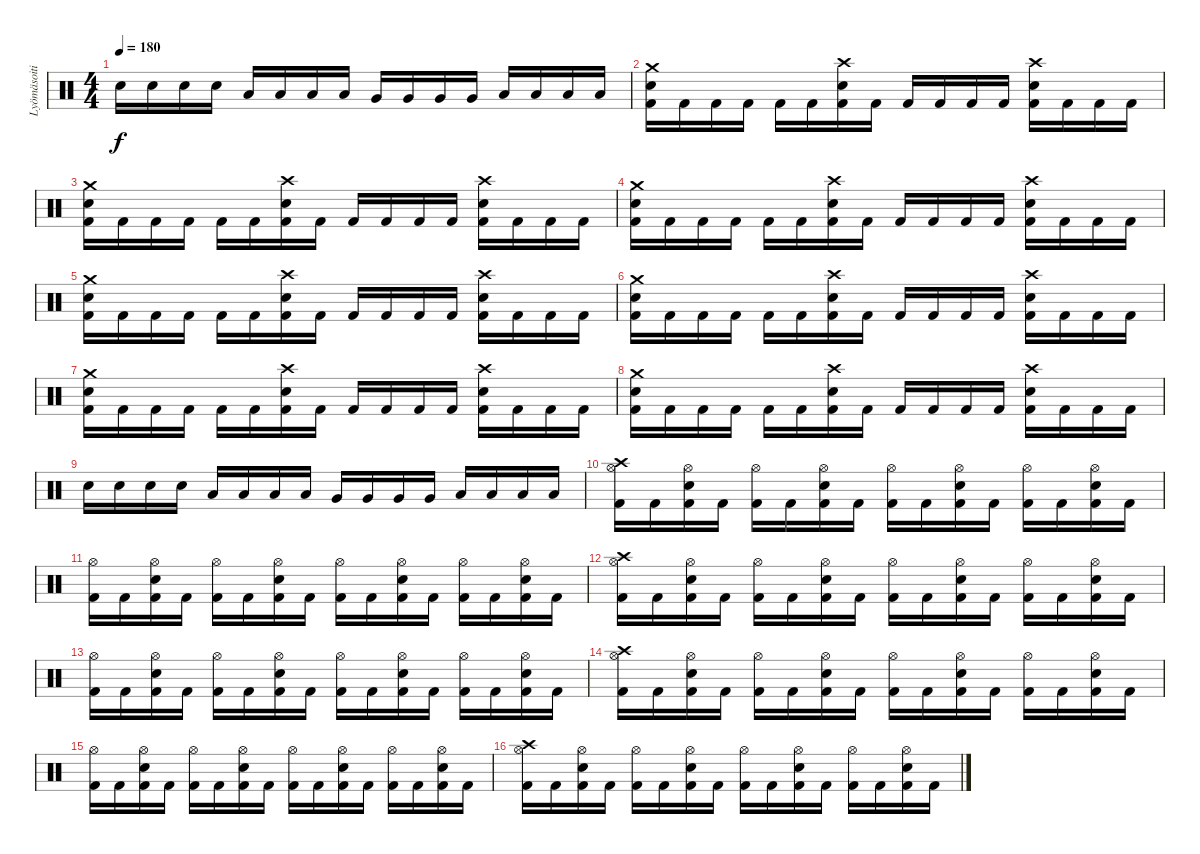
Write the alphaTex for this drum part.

\track ("Lyömäsoitin" "Lyömäsoiti") {instrument percussion}
\staff {score}
\articulation defaults
\ts (4 4)
\tempo 180
\clef neutral
\ks c "Snare (hit) 2".16{dy f} "Snare (hit) 2".16 "Snare (hit) 2".16 "Snare (hit) 2".16 "Low Tom (hit)".16 "Low Tom (hit)".16 "Low Tom (hit)".16 "Low Tom (hit)".16 "Very Low Tom (hit)".16 "Very Low Tom (hit)".16 "Very Low Tom (hit)".16 "Very Low Tom (hit)".16 "Low Floor Tom (hit)".16 "Low Floor Tom (hit)".16 "Low Floor Tom (hit)".16 "Low Floor Tom (hit)".16
|
("Kick (hit) 2" "Snare (hit) 2" "Crash medium (hit)").16 "Kick (hit) 2".16 "Kick (hit) 2".16 "Kick (hit) 2".16 "Kick (hit) 2".16 "Kick (hit) 2".16 ("Kick (hit) 2" "Snare (hit) 2" "Crash high (hit)").16 "Kick (hit) 2".16 "Kick (hit) 2".16 "Kick (hit) 2".16 "Kick (hit) 2".16 "Kick (hit) 2".16 ("Kick (hit) 2" "Snare (hit) 2" "Crash high (hit)").16 "Kick (hit) 2".16 "Kick (hit) 2".16 "Kick (hit) 2".16 |
("Kick (hit) 2" "Snare (hit) 2" "Crash medium (hit)").16 "Kick (hit) 2".16 "Kick (hit) 2".16 "Kick (hit) 2".16 "Kick (hit) 2".16 "Kick (hit) 2".16 ("Kick (hit) 2" "Snare (hit) 2" "Crash high (hit)").16 "Kick (hit) 2".16 "Kick (hit) 2".16 "Kick (hit) 2".16 "Kick (hit) 2".16 "Kick (hit) 2".16 ("Kick (hit) 2" "Snare (hit) 2" "Crash high (hit)").16 "Kick (hit) 2".16 "Kick (hit) 2".16 "Kick (hit) 2".16 |
("Kick (hit) 2" "Snare (hit) 2" "Crash medium (hit)").16 "Kick (hit) 2".16 "Kick (hit) 2".16 "Kick (hit) 2".16 "Kick (hit) 2".16 "Kick (hit) 2".16 ("Kick (hit) 2" "Snare (hit) 2" "Crash high (hit)").16 "Kick (hit) 2".16 "Kick (hit) 2".16 "Kick (hit) 2".16 "Kick (hit) 2".16 "Kick (hit) 2".16 ("Kick (hit) 2" "Snare (hit) 2" "Crash high (hit)").16 "Kick (hit) 2".16 "Kick (hit) 2".16 "Kick (hit) 2".16 |
("Kick (hit) 2" "Snare (hit) 2" "Crash medium (hit)").16 "Kick (hit) 2".16 "Kick (hit) 2".16 "Kick (hit) 2".16 "Kick (hit) 2".16 "Kick (hit) 2".16 ("Kick (hit) 2" "Snare (hit) 2" "Crash high (hit)").16 "Kick (hit) 2".16 "Kick (hit) 2".16 "Kick (hit) 2".16 "Kick (hit) 2".16 "Kick (hit) 2".16 ("Kick (hit) 2" "Snare (hit) 2" "Crash high (hit)").16 "Kick (hit) 2".16 "Kick (hit) 2".16 "Kick (hit) 2".16 |
("Kick (hit) 2" "Snare (hit) 2" "Crash medium (hit)").16 "Kick (hit) 2".16 "Kick (hit) 2".16 "Kick (hit) 2".16 "Kick (hit) 2".16 "Kick (hit) 2".16 ("Kick (hit) 2" "Snare (hit) 2" "Crash high (hit)").16 "Kick (hit) 2".16 "Kick (hit) 2".16 "Kick (hit) 2".16 "Kick (hit) 2".16 "Kick (hit) 2".16 ("Kick (hit) 2" "Snare (hit) 2" "Crash high (hit)").16 "Kick (hit) 2".16 "Kick (hit) 2".16 "Kick (hit) 2".16 |
("Kick (hit) 2" "Snare (hit) 2" "Crash medium (hit)").16 "Kick (hit) 2".16 "Kick (hit) 2".16 "Kick (hit) 2".16 "Kick (hit) 2".16 "Kick (hit) 2".16 ("Kick (hit) 2" "Snare (hit) 2" "Crash high (hit)").16 "Kick (hit) 2".16 "Kick (hit) 2".16 "Kick (hit) 2".16 "Kick (hit) 2".16 "Kick (hit) 2".16 ("Kick (hit) 2" "Snare (hit) 2" "Crash high (hit)").16 "Kick (hit) 2".16 "Kick (hit) 2".16 "Kick (hit) 2".16 |
("Kick (hit) 2" "Snare (hit) 2" "Crash medium (hit)").16 "Kick (hit) 2".16 "Kick (hit) 2".16 "Kick (hit) 2".16 "Kick (hit) 2".16 "Kick (hit) 2".16 ("Kick (hit) 2" "Snare (hit) 2" "Crash high (hit)").16 "Kick (hit) 2".16 "Kick (hit) 2".16 "Kick (hit) 2".16 "Kick (hit) 2".16 "Kick (hit) 2".16 ("Kick (hit) 2" "Snare (hit) 2" "Crash high (hit)").16 "Kick (hit) 2".16 "Kick (hit) 2".16 "Kick (hit) 2".16 |
"Snare (hit) 2".16 "Snare (hit) 2".16 "Snare (hit) 2".16 "Snare (hit) 2".16 "Low Tom (hit)".16 "Low Tom (hit)".16 "Low Tom (hit)".16 "Low Tom (hit)".16 "Very Low Tom (hit)".16 "Very Low Tom (hit)".16 "Very Low Tom (hit)".16 "Very Low Tom (hit)".16 "Low Floor Tom (hit)".16 "Low Floor Tom (hit)".16 "Low Floor Tom (hit)".16 "Low Floor Tom (hit)".16 |
("Kick (hit) 2" "Crash high (hit)" "Hi-Hat (open)").16 "Kick (hit) 2".16 ("Kick (hit) 2" "Snare (hit) 2" "Hi-Hat (open)").16 "Kick (hit) 2".16 ("Kick (hit) 2" "Hi-Hat (open)").16 "Kick (hit) 2".16 ("Kick (hit) 2" "Snare (hit) 2" "Hi-Hat (open)").16 "Kick (hit) 2".16 ("Kick (hit) 2" "Hi-Hat (open)").16 "Kick (hit) 2".16 ("Kick (hit) 2" "Snare (hit) 2" "Hi-Hat (open)").16 "Kick (hit) 2".16 ("Kick (hit) 2" "Hi-Hat (open)").16 "Kick (hit) 2".16 ("Kick (hit) 2" "Snare (hit) 2" "Hi-Hat (open)").16 "Kick (hit) 2".16 |
("Kick (hit) 2" "Hi-Hat (open)").16 "Kick (hit) 2".16 ("Kick (hit) 2" "Snare (hit) 2" "Hi-Hat (open)").16 "Kick (hit) 2".16 ("Kick (hit) 2" "Hi-Hat (open)").16 "Kick (hit) 2".16 ("Kick (hit) 2" "Snare (hit) 2" "Hi-Hat (open)").16 "Kick (hit) 2".16 ("Kick (hit) 2" "Hi-Hat (open)").16 "Kick (hit) 2".16 ("Kick (hit) 2" "Snare (hit) 2" "Hi-Hat (open)").16 "Kick (hit) 2".16 ("Kick (hit) 2" "Hi-Hat (open)").16 "Kick (hit) 2".16 ("Kick (hit) 2" "Snare (hit) 2" "Hi-Hat (open)").16 "Kick (hit) 2".16 |
("Kick (hit) 2" "Crash high (hit)" "Hi-Hat (open)").16 "Kick (hit) 2".16 ("Kick (hit) 2" "Snare (hit) 2" "Hi-Hat (open)").16 "Kick (hit) 2".16 ("Kick (hit) 2" "Hi-Hat (open)").16 "Kick (hit) 2".16 ("Kick (hit) 2" "Snare (hit) 2" "Hi-Hat (open)").16 "Kick (hit) 2".16 ("Kick (hit) 2" "Hi-Hat (open)").16 "Kick (hit) 2".16 ("Kick (hit) 2" "Snare (hit) 2" "Hi-Hat (open)").16 "Kick (hit) 2".16 ("Kick (hit) 2" "Hi-Hat (open)").16 "Kick (hit) 2".16 ("Kick (hit) 2" "Snare (hit) 2" "Hi-Hat (open)").16 "Kick (hit) 2".16 |
("Kick (hit) 2" "Hi-Hat (open)").16 "Kick (hit) 2".16 ("Kick (hit) 2" "Snare (hit) 2" "Hi-Hat (open)").16 "Kick (hit) 2".16 ("Kick (hit) 2" "Hi-Hat (open)").16 "Kick (hit) 2".16 ("Kick (hit) 2" "Snare (hit) 2" "Hi-Hat (open)").16 "Kick (hit) 2".16 ("Kick (hit) 2" "Hi-Hat (open)").16 "Kick (hit) 2".16 ("Kick (hit) 2" "Snare (hit) 2" "Hi-Hat (open)").16 "Kick (hit) 2".16 ("Kick (hit) 2" "Hi-Hat (open)").16 "Kick (hit) 2".16 ("Kick (hit) 2" "Snare (hit) 2" "Hi-Hat (open)").16 "Kick (hit) 2".16 |
("Kick (hit) 2" "Crash high (hit)" "Hi-Hat (open)").16 "Kick (hit) 2".16 ("Kick (hit) 2" "Snare (hit) 2" "Hi-Hat (open)").16 "Kick (hit) 2".16 ("Kick (hit) 2" "Hi-Hat (open)").16 "Kick (hit) 2".16 ("Kick (hit) 2" "Snare (hit) 2" "Hi-Hat (open)").16 "Kick (hit) 2".16 ("Kick (hit) 2" "Hi-Hat (open)").16 "Kick (hit) 2".16 ("Kick (hit) 2" "Snare (hit) 2" "Hi-Hat (open)").16 "Kick (hit) 2".16 ("Kick (hit) 2" "Hi-Hat (open)").16 "Kick (hit) 2".16 ("Kick (hit) 2" "Snare (hit) 2" "Hi-Hat (open)").16 "Kick (hit) 2".16 |
("Kick (hit) 2" "Hi-Hat (open)").16 "Kick (hit) 2".16 ("Kick (hit) 2" "Snare (hit) 2" "Hi-Hat (open)").16 "Kick (hit) 2".16 ("Kick (hit) 2" "Hi-Hat (open)").16 "Kick (hit) 2".16 ("Kick (hit) 2" "Snare (hit) 2" "Hi-Hat (open)").16 "Kick (hit) 2".16 ("Kick (hit) 2" "Hi-Hat (open)").16 "Kick (hit) 2".16 ("Kick (hit) 2" "Snare (hit) 2" "Hi-Hat (open)").16 "Kick (hit) 2".16 ("Kick (hit) 2" "Hi-Hat (open)").16 "Kick (hit) 2".16 ("Kick (hit) 2" "Snare (hit) 2" "Hi-Hat (open)").16 "Kick (hit) 2".16 |
("Kick (hit) 2" "Crash high (hit)" "Hi-Hat (open)").16 "Kick (hit) 2".16 ("Kick (hit) 2" "Snare (hit) 2" "Hi-Hat (open)").16 "Kick (hit) 2".16 ("Kick (hit) 2" "Hi-Hat (open)").16 "Kick (hit) 2".16 ("Kick (hit) 2" "Snare (hit) 2" "Hi-Hat (open)").16 "Kick (hit) 2".16 ("Kick (hit) 2" "Hi-Hat (open)").16 "Kick (hit) 2".16 ("Kick (hit) 2" "Snare (hit) 2" "Hi-Hat (open)").16 "Kick (hit) 2".16 ("Kick (hit) 2" "Hi-Hat (open)").16 "Kick (hit) 2".16 ("Kick (hit) 2" "Snare (hit) 2" "Hi-Hat (open)").16 "Kick (hit) 2".16
